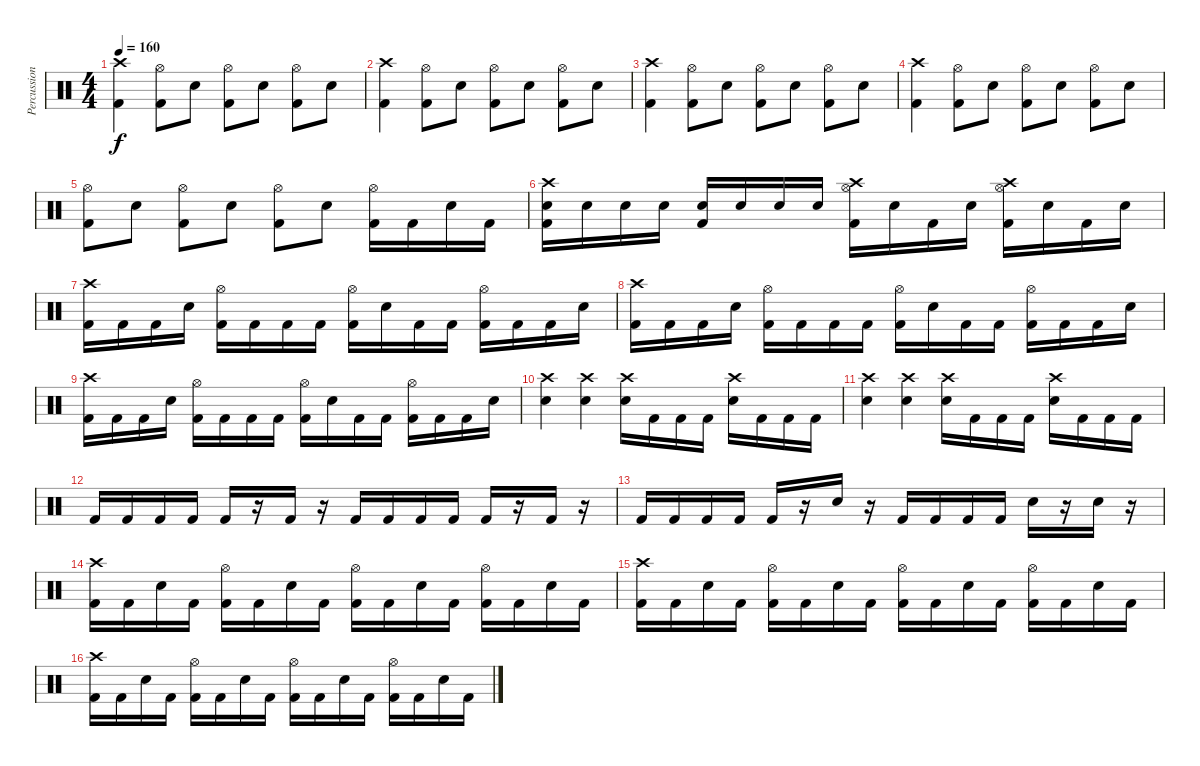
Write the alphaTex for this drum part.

\track ("Percussion" "Percussion") {instrument percussion}
\staff {score}
\articulation defaults
\ts (4 4)
\tempo 160
\clef neutral
\ks c
("Crash high (hit)" "Kick (hit) 2").4{dy f} ("Hi-Hat (open)" "Kick (hit) 2").8 "Electric Snare (hit)".8 ("Hi-Hat (open)" "Kick (hit) 2").8 "Electric Snare (hit)".8 ("Hi-Hat (open)" "Kick (hit) 2").8 "Electric Snare (hit)".8 |
("Crash high (hit)" "Kick (hit) 2").4 ("Hi-Hat (open)" "Kick (hit) 2").8 "Electric Snare (hit)".8 ("Hi-Hat (open)" "Kick (hit) 2").8 "Electric Snare (hit)".8 ("Hi-Hat (open)" "Kick (hit) 2").8 "Electric Snare (hit)".8 |
("Crash high (hit)" "Kick (hit) 2").4 ("Hi-Hat (open)" "Kick (hit) 2").8 "Electric Snare (hit)".8 ("Hi-Hat (open)" "Kick (hit) 2").8 "Electric Snare (hit)".8 ("Hi-Hat (open)" "Kick (hit) 2").8 "Electric Snare (hit)".8 |
("Crash high (hit)" "Kick (hit) 2").4 ("Hi-Hat (open)" "Kick (hit) 2").8 "Electric Snare (hit)".8 ("Hi-Hat (open)" "Kick (hit) 2").8 "Electric Snare (hit)".8 ("Hi-Hat (open)" "Kick (hit) 2").8 "Electric Snare (hit)".8 |
("Hi-Hat (open)" "Kick (hit) 2").8 "Electric Snare (hit)".8 ("Hi-Hat (open)" "Kick (hit) 2").8 "Electric Snare (hit)".8 ("Hi-Hat (open)" "Kick (hit) 2").8 "Electric Snare (hit)".8 ("Hi-Hat (open)" "Kick (hit) 2").16 "Kick (hit) 2".16 "Electric Snare (hit)".16 "Kick (hit) 2".16 |
("Kick (hit) 2" "Electric Snare (hit)" "Crash high (hit)").16 "Electric Snare (hit)".16 "Electric Snare (hit)".16 "Electric Snare (hit)".16 ("Kick (hit) 2" "Electric Snare (hit)").16 "Electric Snare (hit)".16 "Electric Snare (hit)".16 "Electric Snare (hit)".16 ("Hi-Hat (open)" "Kick (hit) 2" "Crash high (hit)").16 "Electric Snare (hit)".16 "Kick (hit) 2".16 "Electric Snare (hit)".16 ("Hi-Hat (open)" "Kick (hit) 2" "Crash high (hit)").16 "Electric Snare (hit)".16 "Kick (hit) 2".16 "Electric Snare (hit)".16 |
("Crash high (hit)" "Kick (hit) 2").16 "Kick (hit) 2".16 "Kick (hit) 2".16 "Electric Snare (hit)".16 ("Hi-Hat (open)" "Kick (hit) 2").16 "Kick (hit) 2".16 "Kick (hit) 2".16 "Kick (hit) 2".16 ("Hi-Hat (open)" "Kick (hit) 2").16 "Electric Snare (hit)".16 "Kick (hit) 2".16 "Kick (hit) 2".16 ("Hi-Hat (open)" "Kick (hit) 2").16 "Kick (hit) 2".16 "Kick (hit) 2".16 "Electric Snare (hit)".16 |
("Crash high (hit)" "Kick (hit) 2").16 "Kick (hit) 2".16 "Kick (hit) 2".16 "Electric Snare (hit)".16 ("Hi-Hat (open)" "Kick (hit) 2").16 "Kick (hit) 2".16 "Kick (hit) 2".16 "Kick (hit) 2".16 ("Hi-Hat (open)" "Kick (hit) 2").16 "Electric Snare (hit)".16 "Kick (hit) 2".16 "Kick (hit) 2".16 ("Hi-Hat (open)" "Kick (hit) 2").16 "Kick (hit) 2".16 "Kick (hit) 2".16 "Electric Snare (hit)".16 |
("Crash high (hit)" "Kick (hit) 2").16 "Kick (hit) 2".16 "Kick (hit) 2".16 "Electric Snare (hit)".16 ("Hi-Hat (open)" "Kick (hit) 2").16 "Kick (hit) 2".16 "Kick (hit) 2".16 "Kick (hit) 2".16 ("Hi-Hat (open)" "Kick (hit) 2").16 "Electric Snare (hit)".16 "Kick (hit) 2".16 "Kick (hit) 2".16 ("Hi-Hat (open)" "Kick (hit) 2").16 "Kick (hit) 2".16 "Kick (hit) 2".16 "Electric Snare (hit)".16 |
("Crash high (hit)" "Electric Snare (hit)").4 ("Crash high (hit)" "Electric Snare (hit)").4 ("Crash high (hit)" "Electric Snare (hit)").16 "Kick (hit) 2".16 "Kick (hit) 2".16 "Kick (hit) 2".16 ("Crash high (hit)" "Electric Snare (hit)").16 "Kick (hit) 2".16 "Kick (hit) 2".16 "Kick (hit) 2".16 |
("Crash high (hit)" "Electric Snare (hit)").4 ("Crash high (hit)" "Electric Snare (hit)").4 ("Crash high (hit)" "Electric Snare (hit)").16 "Kick (hit) 2".16 "Kick (hit) 2".16 "Kick (hit) 2".16 ("Crash high (hit)" "Electric Snare (hit)").16 "Kick (hit) 2".16 "Kick (hit) 2".16 "Kick (hit) 2".16 |
"Kick (hit) 2".16 "Kick (hit) 2".16 "Kick (hit) 2".16 "Kick (hit) 2".16 "Kick (hit) 2".16 r.16 "Kick (hit) 2".16 r.16 "Kick (hit) 2".16 "Kick (hit) 2".16 "Kick (hit) 2".16 "Kick (hit) 2".16 "Kick (hit) 2".16 r.16 "Kick (hit) 2".16 r.16 |
"Kick (hit) 2".16 "Kick (hit) 2".16 "Kick (hit) 2".16 "Kick (hit) 2".16 "Kick (hit) 2".16 r.16 "Electric Snare (hit)".16 r.16 "Kick (hit) 2".16 "Kick (hit) 2".16 "Kick (hit) 2".16 "Kick (hit) 2".16 "Electric Snare (hit)".16 r.16 "Snare (hit) 2".16 r.16 |
("Crash high (hit)" "Kick (hit) 2").16 "Kick (hit) 2".16 "Electric Snare (hit)".16 "Kick (hit) 2".16 ("Hi-Hat (open)" "Kick (hit) 2").16 "Kick (hit) 2".16 "Electric Snare (hit)".16 "Kick (hit) 2".16 ("Hi-Hat (open)" "Kick (hit) 2").16 "Kick (hit) 2".16 "Electric Snare (hit)".16 "Kick (hit) 2".16 ("Hi-Hat (open)" "Kick (hit) 2").16 "Kick (hit) 2".16 "Electric Snare (hit)".16 "Kick (hit) 2".16 |
("Crash high (hit)" "Kick (hit) 2").16 "Kick (hit) 2".16 "Electric Snare (hit)".16 "Kick (hit) 2".16 ("Hi-Hat (open)" "Kick (hit) 2").16 "Kick (hit) 2".16 "Electric Snare (hit)".16 "Kick (hit) 2".16 ("Hi-Hat (open)" "Kick (hit) 2").16 "Kick (hit) 2".16 "Electric Snare (hit)".16 "Kick (hit) 2".16 ("Hi-Hat (open)" "Kick (hit) 2").16 "Kick (hit) 2".16 "Electric Snare (hit)".16 "Kick (hit) 2".16 |
("Crash high (hit)" "Kick (hit) 2").16 "Kick (hit) 2".16 "Electric Snare (hit)".16 "Kick (hit) 2".16 ("Hi-Hat (open)" "Kick (hit) 2").16 "Kick (hit) 2".16 "Electric Snare (hit)".16 "Kick (hit) 2".16 ("Hi-Hat (open)" "Kick (hit) 2").16 "Kick (hit) 2".16 "Electric Snare (hit)".16 "Kick (hit) 2".16 ("Hi-Hat (open)" "Kick (hit) 2").16 "Kick (hit) 2".16 "Electric Snare (hit)".16 "Kick (hit) 2".16
